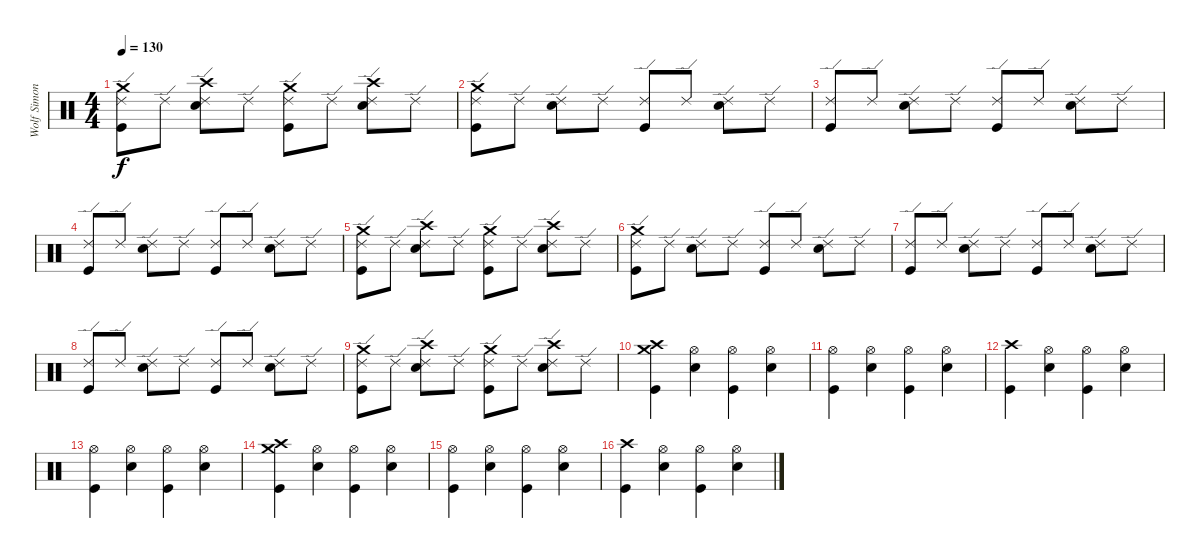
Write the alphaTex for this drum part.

\track ("Wolf Simon" "Wolf Simon") {instrument percussion}
\staff {score}
\articulation defaults
\ts (4 4)
\tempo 130
\clef neutral
\ks c
("Crash medium (hit)" "Ride (edge) 2" "Kick (hit)").8{dy f} "Ride (edge) 2".8 ("Crash high (hit)" "Ride (edge) 2" "Electric Snare (hit)").8 "Ride (edge) 2".8 ("Crash medium (hit)" "Ride (edge) 2" "Kick (hit)").8 "Ride (edge) 2".8 ("Crash high (hit)" "Ride (edge) 2" "Electric Snare (hit)").8 "Ride (edge) 2".8 |
("Crash medium (hit)" "Ride (edge) 2" "Kick (hit)").8 "Ride (edge) 2".8 ("Ride (edge) 2" "Electric Snare (hit)").8 "Ride (edge) 2".8 ("Ride (edge) 2" "Kick (hit)").8 "Ride (edge) 2".8 ("Ride (edge) 2" "Electric Snare (hit)").8 "Ride (edge) 2".8 |
("Ride (edge) 2" "Kick (hit)").8 "Ride (edge) 2".8 ("Ride (edge) 2" "Electric Snare (hit)").8 "Ride (edge) 2".8 ("Ride (edge) 2" "Kick (hit)").8 "Ride (edge) 2".8 ("Ride (edge) 2" "Electric Snare (hit)").8 "Ride (edge) 2".8 |
("Ride (edge) 2" "Kick (hit)").8 "Ride (edge) 2".8 ("Ride (edge) 2" "Electric Snare (hit)").8 "Ride (edge) 2".8 ("Ride (edge) 2" "Kick (hit)").8 "Ride (edge) 2".8 ("Ride (edge) 2" "Electric Snare (hit)").8 "Ride (edge) 2".8 |
("Crash medium (hit)" "Ride (edge) 2" "Kick (hit)").8 "Ride (edge) 2".8 ("Crash high (hit)" "Ride (edge) 2" "Electric Snare (hit)").8 "Ride (edge) 2".8 ("Crash medium (hit)" "Ride (edge) 2" "Kick (hit)").8 "Ride (edge) 2".8 ("Crash high (hit)" "Ride (edge) 2" "Electric Snare (hit)").8 "Ride (edge) 2".8 |
("Crash medium (hit)" "Ride (edge) 2" "Kick (hit)").8 "Ride (edge) 2".8 ("Ride (edge) 2" "Electric Snare (hit)").8 "Ride (edge) 2".8 ("Ride (edge) 2" "Kick (hit)").8 "Ride (edge) 2".8 ("Ride (edge) 2" "Electric Snare (hit)").8 "Ride (edge) 2".8 |
("Ride (edge) 2" "Kick (hit)").8 "Ride (edge) 2".8 ("Ride (edge) 2" "Electric Snare (hit)").8 "Ride (edge) 2".8 ("Ride (edge) 2" "Kick (hit)").8 "Ride (edge) 2".8 ("Ride (edge) 2" "Electric Snare (hit)").8 "Ride (edge) 2".8 |
("Ride (edge) 2" "Kick (hit)").8 "Ride (edge) 2".8 ("Ride (edge) 2" "Electric Snare (hit)").8 "Ride (edge) 2".8 ("Ride (edge) 2" "Kick (hit)").8 "Ride (edge) 2".8 ("Ride (edge) 2" "Electric Snare (hit)").8 "Ride (edge) 2".8 |
("Crash medium (hit)" "Ride (edge) 2" "Kick (hit)").8 "Ride (edge) 2".8 ("Crash high (hit)" "Ride (edge) 2" "Electric Snare (hit)").8 "Ride (edge) 2".8 ("Crash medium (hit)" "Ride (edge) 2" "Kick (hit)").8 "Ride (edge) 2".8 ("Crash high (hit)" "Ride (edge) 2" "Electric Snare (hit)").8 "Ride (edge) 2".8 |
("Crash medium (hit)" "Crash high (hit)" "Kick (hit)").4 ("Hi-Hat (open)" "Electric Snare (hit)").4 ("Hi-Hat (open)" "Kick (hit)").4 ("Hi-Hat (open)" "Electric Snare (hit)").4 |
("Hi-Hat (open)" "Kick (hit)").4 ("Hi-Hat (open)" "Electric Snare (hit)").4 ("Hi-Hat (open)" "Kick (hit)").4 ("Hi-Hat (open)" "Electric Snare (hit)").4 |
("Crash high (hit)" "Kick (hit)").4 ("Hi-Hat (open)" "Electric Snare (hit)").4 ("Hi-Hat (open)" "Kick (hit)").4 ("Hi-Hat (open)" "Electric Snare (hit)").4 |
("Hi-Hat (open)" "Kick (hit)").4 ("Hi-Hat (open)" "Electric Snare (hit)").4 ("Hi-Hat (open)" "Kick (hit)").4 ("Hi-Hat (open)" "Electric Snare (hit)").4 |
("Crash medium (hit)" "Crash high (hit)" "Kick (hit)").4 ("Hi-Hat (open)" "Electric Snare (hit)").4 ("Hi-Hat (open)" "Kick (hit)").4 ("Hi-Hat (open)" "Electric Snare (hit)").4 |
("Hi-Hat (open)" "Kick (hit)").4 ("Hi-Hat (open)" "Electric Snare (hit)").4 ("Hi-Hat (open)" "Kick (hit)").4 ("Hi-Hat (open)" "Electric Snare (hit)").4 |
("Crash high (hit)" "Kick (hit)").4 ("Hi-Hat (open)" "Electric Snare (hit)").4 ("Hi-Hat (open)" "Kick (hit)").4 ("Hi-Hat (open)" "Electric Snare (hit)").4
